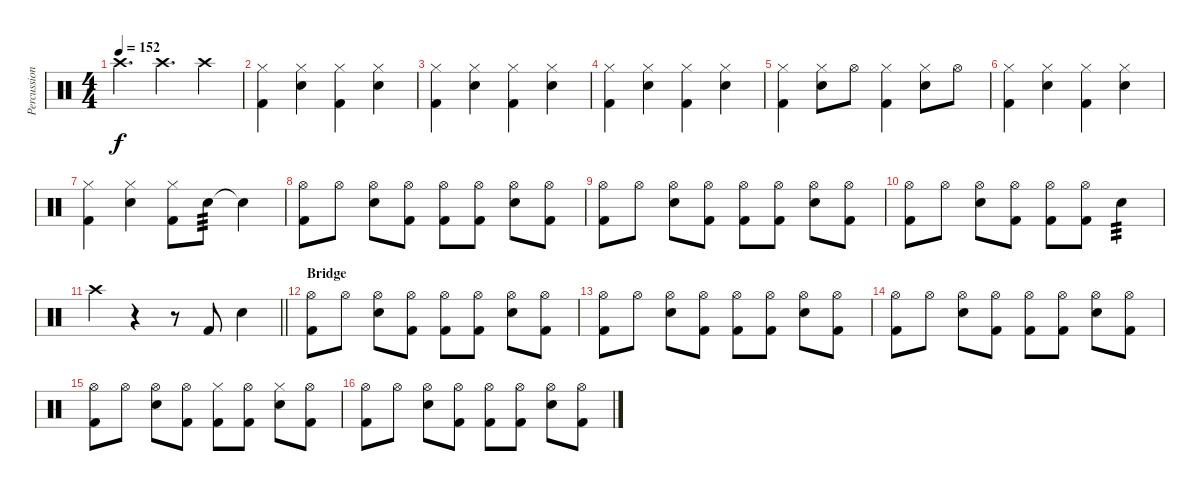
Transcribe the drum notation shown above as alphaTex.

\track ("Percussion" "Percussion") {instrument percussion}
\staff {score}
\articulation defaults
\ts (4 4)
\tempo 152
\clef neutral
\ks c "Crash high (hit)".4{d dy f} "Crash high (hit)".4{d} "Crash high (hit)".4
|
("Kick (hit) 2" "Hi-Hat (closed)").4 ("Snare (hit) 2" "Hi-Hat (closed)").4 ("Kick (hit) 2" "Hi-Hat (closed)").4 ("Snare (hit) 2" "Hi-Hat (closed)").4 |
("Kick (hit) 2" "Hi-Hat (closed)").4 ("Snare (hit) 2" "Hi-Hat (closed)").4 ("Kick (hit) 2" "Hi-Hat (closed)").4 ("Snare (hit) 2" "Hi-Hat (closed)").4 |
("Kick (hit) 2" "Hi-Hat (closed)").4 ("Snare (hit) 2" "Hi-Hat (closed)").4 ("Kick (hit) 2" "Hi-Hat (closed)").4 ("Snare (hit) 2" "Hi-Hat (closed)").4 |
("Kick (hit) 2" "Hi-Hat (closed)").4 ("Snare (hit) 2" "Hi-Hat (closed)").8 "Hi-Hat (open)".8 ("Kick (hit) 2" "Hi-Hat (closed)").4 ("Snare (hit) 2" "Hi-Hat (closed)").8 "Hi-Hat (open)".8 |
("Kick (hit) 2" "Hi-Hat (closed)").4 ("Snare (hit) 2" "Hi-Hat (closed)").4 ("Kick (hit) 2" "Hi-Hat (closed)").4 ("Snare (hit) 2" "Hi-Hat (closed)").4 |
("Kick (hit) 2" "Hi-Hat (closed)").4 ("Snare (hit) 2" "Hi-Hat (closed)").4 ("Kick (hit) 2" "Hi-Hat (closed)").8 "Snare (hit) 2".8{tp 3} "Snare (hit)"{t}.4 |
("Kick (hit) 2" "Hi-Hat (open)").8 "Hi-Hat (open)".8 ("Snare (hit) 2" "Hi-Hat (open)").8 ("Kick (hit) 2" "Hi-Hat (open)").8 ("Kick (hit) 2" "Hi-Hat (open)").8 ("Kick (hit) 2" "Hi-Hat (open)").8 ("Snare (hit) 2" "Hi-Hat (open)").8 ("Kick (hit) 2" "Hi-Hat (open)").8 |
("Kick (hit) 2" "Hi-Hat (open)").8 "Hi-Hat (open)".8 ("Snare (hit) 2" "Hi-Hat (open)").8 ("Kick (hit) 2" "Hi-Hat (open)").8 ("Kick (hit) 2" "Hi-Hat (open)").8 ("Kick (hit) 2" "Hi-Hat (open)").8 ("Snare (hit) 2" "Hi-Hat (open)").8 ("Kick (hit) 2" "Hi-Hat (open)").8 |
("Kick (hit) 2" "Hi-Hat (open)").8 "Hi-Hat (open)".8 ("Snare (hit) 2" "Hi-Hat (open)").8 ("Kick (hit) 2" "Hi-Hat (open)").8 ("Kick (hit) 2" "Hi-Hat (open)").8 ("Kick (hit) 2" "Hi-Hat (open)").8 "Snare (hit) 2".4{tp 3} |
\barLineRight lightlight "Crash high (hit)".4
r.4 r.8 "Kick (hit) 2".8 "Snare (hit) 2".4 |
\section ("" "Bridge")
("Kick (hit) 2" "Hi-Hat (open)").8 "Hi-Hat (open)".8 ("Snare (hit) 2" "Hi-Hat (open)").8 ("Kick (hit) 2" "Hi-Hat (open)").8 ("Kick (hit) 2" "Hi-Hat (open)").8 ("Kick (hit) 2" "Hi-Hat (open)").8 ("Snare (hit) 2" "Hi-Hat (open)").8 ("Kick (hit) 2" "Hi-Hat (open)").8 |
("Kick (hit) 2" "Hi-Hat (open)").8 "Hi-Hat (open)".8 ("Snare (hit) 2" "Hi-Hat (open)").8 ("Kick (hit) 2" "Hi-Hat (open)").8 ("Kick (hit) 2" "Hi-Hat (open)").8 ("Kick (hit) 2" "Hi-Hat (open)").8 ("Snare (hit) 2" "Hi-Hat (open)").8 ("Kick (hit) 2" "Hi-Hat (open)").8 |
("Kick (hit) 2" "Hi-Hat (open)").8 "Hi-Hat (open)".8 ("Snare (hit) 2" "Hi-Hat (open)").8 ("Kick (hit) 2" "Hi-Hat (open)").8 ("Kick (hit) 2" "Hi-Hat (open)").8 ("Kick (hit) 2" "Hi-Hat (open)").8 ("Snare (hit) 2" "Hi-Hat (open)").8 ("Kick (hit) 2" "Hi-Hat (open)").8 |
("Kick (hit) 2" "Hi-Hat (open)").8 "Hi-Hat (open)".8 ("Snare (hit) 2" "Hi-Hat (open)").8 ("Kick (hit) 2" "Hi-Hat (open)").8 ("Kick (hit) 2" "Hi-Hat (closed)").8 ("Kick (hit) 2" "Hi-Hat (open)").8 ("Snare (hit) 2" "Hi-Hat (closed)").8 ("Kick (hit) 2" "Hi-Hat (open)").8 |
("Kick (hit) 2" "Hi-Hat (open)").8 "Hi-Hat (open)".8 ("Snare (hit) 2" "Hi-Hat (open)").8 ("Kick (hit) 2" "Hi-Hat (open)").8 ("Kick (hit) 2" "Hi-Hat (open)").8 ("Kick (hit) 2" "Hi-Hat (open)").8 ("Snare (hit) 2" "Hi-Hat (open)").8 ("Kick (hit) 2" "Hi-Hat (open)").8
